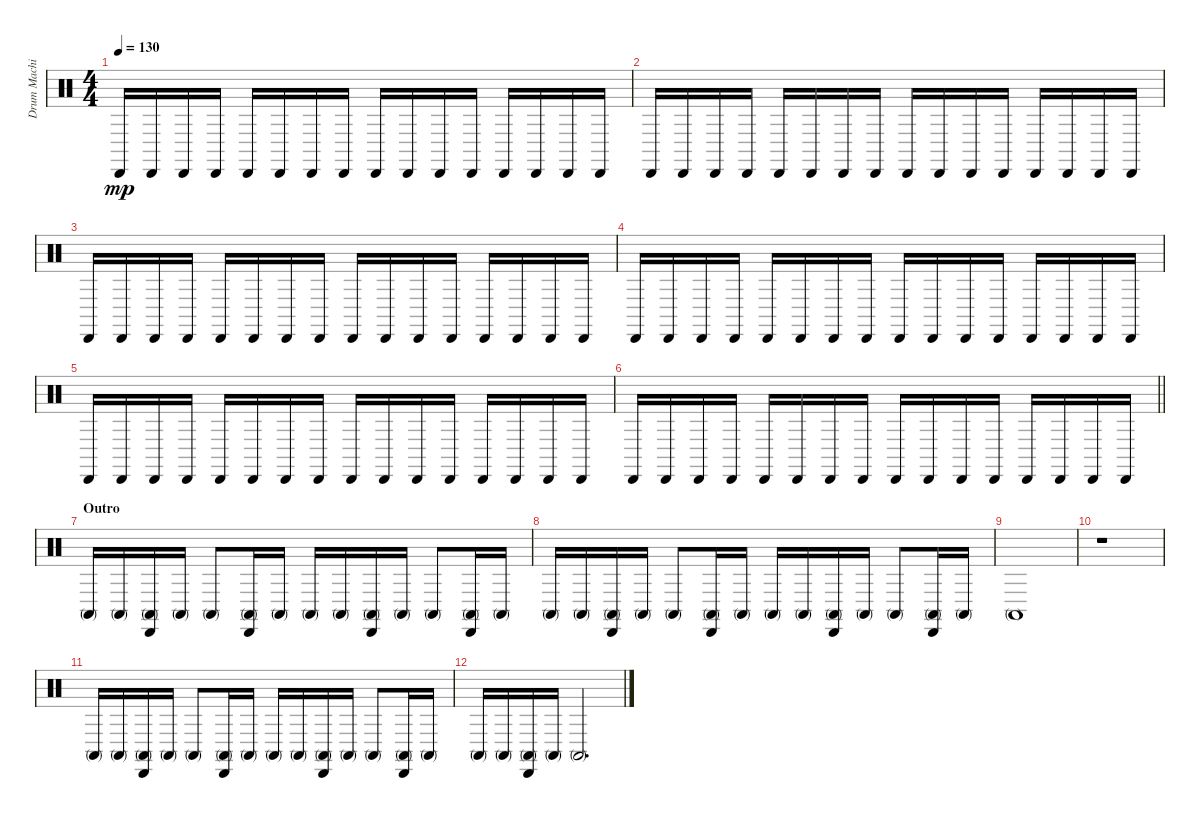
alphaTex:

\track ("Drum Machine" "Drum Machi") {instrument percussion}
\staff {score}
\articulation defaults
\ts (4 4)
\tempo 130
\clef neutral
\ks c "Cabasa (hit)".16{dy mp} "Cabasa (hit)".16 "Cabasa (hit)".16 "Cabasa (hit)".16 "Cabasa (hit)".16 "Cabasa (hit)".16 "Cabasa (hit)".16 "Cabasa (hit)".16 "Cabasa (hit)".16 "Cabasa (hit)".16 "Cabasa (hit)".16 "Cabasa (hit)".16 "Cabasa (hit)".16 "Cabasa (hit)".16 "Cabasa (hit)".16 "Cabasa (hit)".16
|
"Cabasa (hit)".16 "Cabasa (hit)".16 "Cabasa (hit)".16 "Cabasa (hit)".16 "Cabasa (hit)".16 "Cabasa (hit)".16 "Cabasa (hit)".16 "Cabasa (hit)".16 "Cabasa (hit)".16 "Cabasa (hit)".16 "Cabasa (hit)".16 "Cabasa (hit)".16 "Cabasa (hit)".16 "Cabasa (hit)".16 "Cabasa (hit)".16 "Cabasa (hit)".16 |
"Cabasa (hit)".16 "Cabasa (hit)".16 "Cabasa (hit)".16 "Cabasa (hit)".16 "Cabasa (hit)".16 "Cabasa (hit)".16 "Cabasa (hit)".16 "Cabasa (hit)".16 "Cabasa (hit)".16 "Cabasa (hit)".16 "Cabasa (hit)".16 "Cabasa (hit)".16 "Cabasa (hit)".16 "Cabasa (hit)".16 "Cabasa (hit)".16 "Cabasa (hit)".16 |
"Cabasa (hit)".16 "Cabasa (hit)".16 "Cabasa (hit)".16 "Cabasa (hit)".16 "Cabasa (hit)".16 "Cabasa (hit)".16 "Cabasa (hit)".16 "Cabasa (hit)".16 "Cabasa (hit)".16 "Cabasa (hit)".16 "Cabasa (hit)".16 "Cabasa (hit)".16 "Cabasa (hit)".16 "Cabasa (hit)".16 "Cabasa (hit)".16 "Cabasa (hit)".16 |
"Cabasa (hit)".16 "Cabasa (hit)".16 "Cabasa (hit)".16 "Cabasa (hit)".16 "Cabasa (hit)".16 "Cabasa (hit)".16 "Cabasa (hit)".16 "Cabasa (hit)".16 "Cabasa (hit)".16 "Cabasa (hit)".16 "Cabasa (hit)".16 "Cabasa (hit)".16 "Cabasa (hit)".16 "Cabasa (hit)".16 "Cabasa (hit)".16 "Cabasa (hit)".16 |
\barLineRight lightlight "Cabasa (hit)".16 "Cabasa (hit)".16 "Cabasa (hit)".16 "Cabasa (hit)".16 "Cabasa (hit)".16 "Cabasa (hit)".16 "Cabasa (hit)".16 "Cabasa (hit)".16 "Cabasa (hit)".16 "Cabasa (hit)".16 "Cabasa (hit)".16 "Cabasa (hit)".16 "Cabasa (hit)".16 "Cabasa (hit)".16 "Cabasa (hit)".16 "Cabasa (hit)".16
|
\section ("" "Outro")
"Conga high (mute)".16 "Conga high (mute)".16 ("Cabasa (hit)" "Conga high (mute)").16 "Conga high (mute)".16 "Conga high (mute)".8 ("Cabasa (hit)" "Conga high (mute)").16 "Conga high (mute)".16 "Conga high (mute)".16 "Conga high (mute)".16 ("Cabasa (hit)" "Conga high (mute)").16 "Conga high (mute)".16 "Conga high (mute)".8 ("Cabasa (hit)" "Conga high (mute)").16 "Conga high (mute)".16 |
"Conga high (mute)".16 "Conga high (mute)".16 ("Cabasa (hit)" "Conga high (mute)").16 "Conga high (mute)".16 "Conga high (mute)".8 ("Cabasa (hit)" "Conga high (mute)").16 "Conga high (mute)".16 "Conga high (mute)".16 "Conga high (mute)".16 ("Cabasa (hit)" "Conga high (mute)").16 "Conga high (mute)".16 "Conga high (mute)".8 ("Cabasa (hit)" "Conga high (mute)").16 "Conga high (mute)".16 |
"Conga high (mute)".1 |
r.1 |
"Conga high (mute)".16 "Conga high (mute)".16 ("Cabasa (hit)" "Conga high (mute)").16 "Conga high (mute)".16 "Conga high (mute)".8 ("Cabasa (hit)" "Conga high (mute)").16 "Conga high (mute)".16 "Conga high (mute)".16 "Conga high (mute)".16 ("Cabasa (hit)" "Conga high (mute)").16 "Conga high (mute)".16 "Conga high (mute)".8 ("Cabasa (hit)" "Conga high (mute)").16 "Conga high (mute)".16 |
"Conga high (mute)".16 "Conga high (mute)".16 ("Cabasa (hit)" "Conga high (mute)").16 "Conga high (mute)".16 "Conga high (mute)".2{d}
